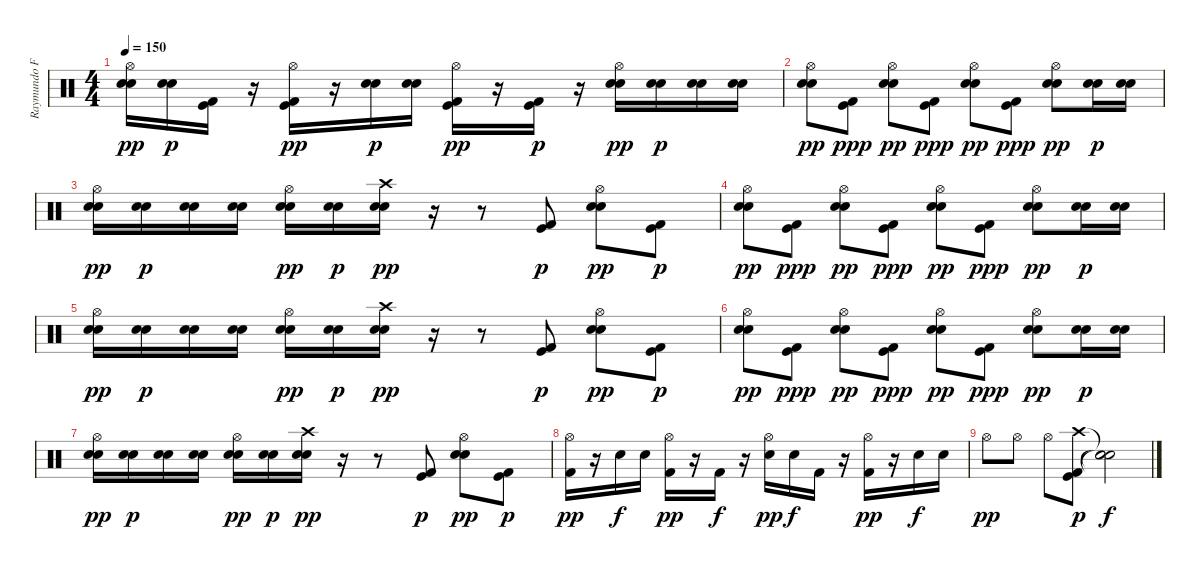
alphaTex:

\track ("Raymundo Fajardo (Bateria)" "Raymundo F") {instrument percussion}
\staff {score}
\articulation defaults
\ts (4 4)
\tempo 150
\clef neutral
\ks c
("Electric Snare (hit)" "Snare (hit) 2" "Hi-Hat (open)").16{dy pp} ("Electric Snare (hit)" "Snare (hit) 2").16{dy p} ("Kick (hit) 2" "Kick (hit)").16 r.16 ("Kick (hit) 2" "Kick (hit)" "Hi-Hat (open)").16{dy pp} r.16 ("Electric Snare (hit)" "Snare (hit) 2").16{dy p} ("Electric Snare (hit)" "Snare (hit) 2").16 ("Kick (hit) 2" "Kick (hit)" "Hi-Hat (open)").16{dy pp} r.16 ("Kick (hit) 2" "Kick (hit)").16{dy p} r.16 ("Electric Snare (hit)" "Snare (hit) 2" "Hi-Hat (open)").16{dy pp} ("Electric Snare (hit)" "Snare (hit) 2").16{dy p} ("Electric Snare (hit)" "Snare (hit) 2").16 ("Electric Snare (hit)" "Snare (hit) 2").16 |
("Electric Snare (hit)" "Snare (hit) 2" "Hi-Hat (open)").8{dy pp} ("Kick (hit) 2" "Kick (hit)").8{dy ppp} ("Electric Snare (hit)" "Snare (hit) 2" "Hi-Hat (open)").8{dy pp} ("Kick (hit) 2" "Kick (hit)").8{dy ppp} ("Electric Snare (hit)" "Snare (hit) 2" "Hi-Hat (open)").8{dy pp} ("Kick (hit) 2" "Kick (hit)").8{dy ppp} ("Electric Snare (hit)" "Snare (hit) 2" "Hi-Hat (open)").8{dy pp} ("Electric Snare (hit)" "Snare (hit) 2").16{dy p} ("Electric Snare (hit)" "Snare (hit) 2").16 |
("Electric Snare (hit)" "Snare (hit) 2" "Hi-Hat (open)").16{dy pp} ("Electric Snare (hit)" "Snare (hit) 2").16{dy p} ("Electric Snare (hit)" "Snare (hit) 2").16 ("Electric Snare (hit)" "Snare (hit) 2").16 ("Electric Snare (hit)" "Snare (hit) 2" "Hi-Hat (open)").16{dy pp} ("Electric Snare (hit)" "Snare (hit) 2").16{dy p} ("Electric Snare (hit)" "Snare (hit) 2" "Crash high (hit)").16{dy pp} r.16 r.8 ("Kick (hit) 2" "Kick (hit)").8{dy p} ("Electric Snare (hit)" "Snare (hit) 2" "Hi-Hat (open)").8{dy pp} ("Kick (hit) 2" "Kick (hit)").8{dy p} |
("Electric Snare (hit)" "Snare (hit) 2" "Hi-Hat (open)").8{dy pp} ("Kick (hit) 2" "Kick (hit)").8{dy ppp} ("Electric Snare (hit)" "Snare (hit) 2" "Hi-Hat (open)").8{dy pp} ("Kick (hit) 2" "Kick (hit)").8{dy ppp} ("Electric Snare (hit)" "Snare (hit) 2" "Hi-Hat (open)").8{dy pp} ("Kick (hit) 2" "Kick (hit)").8{dy ppp} ("Electric Snare (hit)" "Snare (hit) 2" "Hi-Hat (open)").8{dy pp} ("Electric Snare (hit)" "Snare (hit) 2").16{dy p} ("Electric Snare (hit)" "Snare (hit) 2").16 |
("Electric Snare (hit)" "Snare (hit) 2" "Hi-Hat (open)").16{dy pp} ("Electric Snare (hit)" "Snare (hit) 2").16{dy p} ("Electric Snare (hit)" "Snare (hit) 2").16 ("Electric Snare (hit)" "Snare (hit) 2").16 ("Electric Snare (hit)" "Snare (hit) 2" "Hi-Hat (open)").16{dy pp} ("Electric Snare (hit)" "Snare (hit) 2").16{dy p} ("Electric Snare (hit)" "Snare (hit) 2" "Crash high (hit)").16{dy pp} r.16 r.8 ("Kick (hit) 2" "Kick (hit)").8{dy p} ("Electric Snare (hit)" "Snare (hit) 2" "Hi-Hat (open)").8{dy pp} ("Kick (hit) 2" "Kick (hit)").8{dy p} |
("Electric Snare (hit)" "Snare (hit) 2" "Hi-Hat (open)").8{dy pp} ("Kick (hit) 2" "Kick (hit)").8{dy ppp} ("Electric Snare (hit)" "Snare (hit) 2" "Hi-Hat (open)").8{dy pp} ("Kick (hit) 2" "Kick (hit)").8{dy ppp} ("Electric Snare (hit)" "Snare (hit) 2" "Hi-Hat (open)").8{dy pp} ("Kick (hit) 2" "Kick (hit)").8{dy ppp} ("Electric Snare (hit)" "Snare (hit) 2" "Hi-Hat (open)").8{dy pp} ("Electric Snare (hit)" "Snare (hit) 2").16{dy p} ("Electric Snare (hit)" "Snare (hit) 2").16 |
("Electric Snare (hit)" "Snare (hit) 2" "Hi-Hat (open)").16{dy pp} ("Electric Snare (hit)" "Snare (hit) 2").16{dy p} ("Electric Snare (hit)" "Snare (hit) 2").16 ("Electric Snare (hit)" "Snare (hit) 2").16 ("Electric Snare (hit)" "Snare (hit) 2" "Hi-Hat (open)").16{dy pp} ("Electric Snare (hit)" "Snare (hit) 2").16{dy p} ("Electric Snare (hit)" "Snare (hit) 2" "Crash high (hit)").16{dy pp} r.16 r.8 ("Kick (hit) 2" "Kick (hit)").8{dy p} ("Electric Snare (hit)" "Snare (hit) 2" "Hi-Hat (open)").8{dy pp} ("Kick (hit) 2" "Kick (hit)").8{dy p} |
("Kick (hit) 2" "Hi-Hat (open)").16{dy pp} r.16 "Electric Snare (hit)".16{dy f} "Electric Snare (hit)".16 ("Kick (hit) 2" "Hi-Hat (open)").16{dy pp} r.16 "Kick (hit) 2".16{dy f} r.16 ("Electric Snare (hit)" "Hi-Hat (open)").16{dy pp} "Electric Snare (hit)".16{dy f} "Kick (hit) 2".16 r.16 ("Kick (hit) 2" "Hi-Hat (open)").16{dy pp} r.16 "Electric Snare (hit)".16{dy f} "Electric Snare (hit)".16 |
"Hi-Hat (open)".8{dy pp} "Hi-Hat (open)".8 "Hi-Hat (open)".8 ("Crash high (hit)" "Kick (hit) 2" "Kick (hit)").8{dy p} ("Snare (hit)"{t} "Snare (hit)"{t} "Snare (hit)"{t}).2{dy f}
